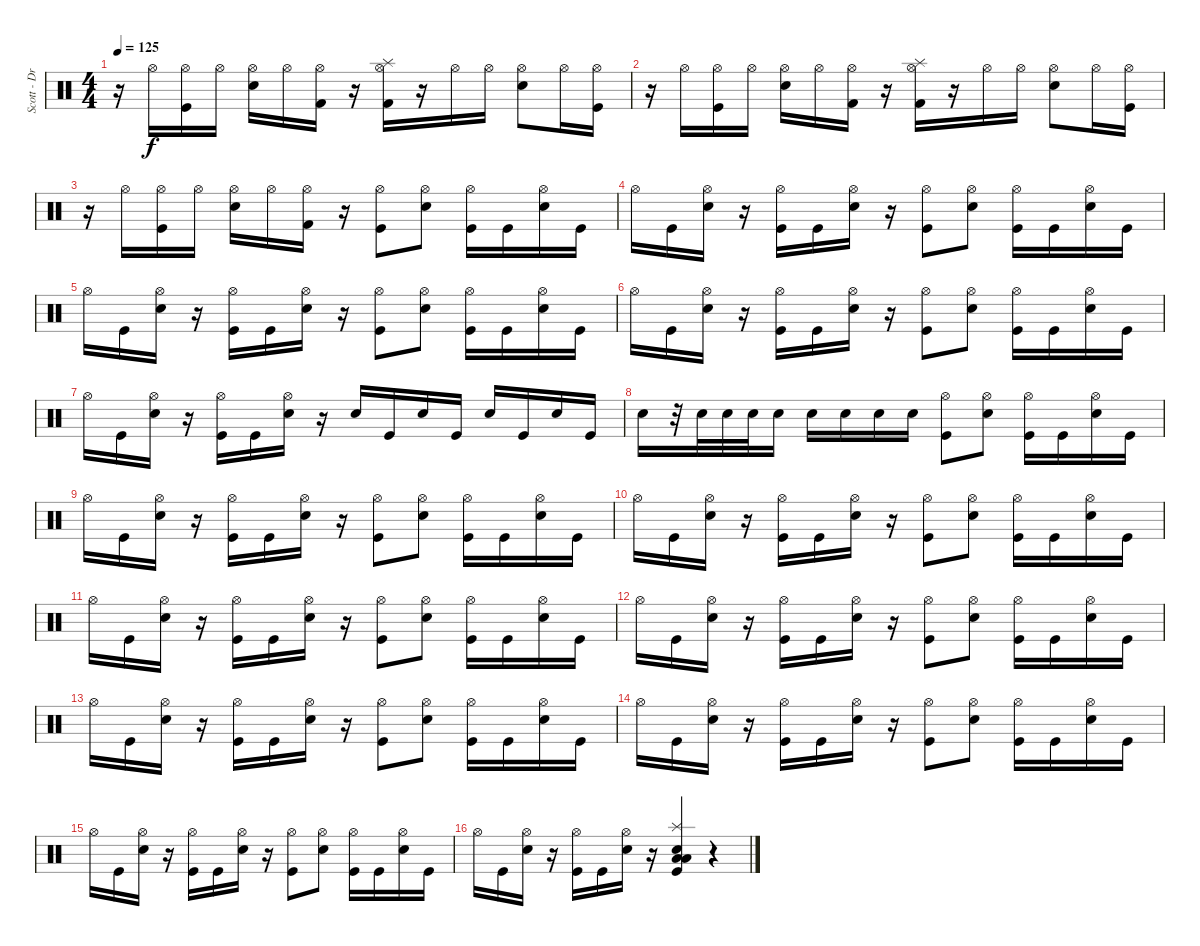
\track ("Scott - Drums" "Scott - Dr") {instrument percussion}
\staff {score}
\articulation defaults
\ts (4 4)
\tempo 125
\clef neutral
\ks c
r.16{dy f} "Hi-Hat (open)".16 ("Hi-Hat (open)" "Kick (hit)").16 "Hi-Hat (open)".16 ("Hi-Hat (open)" "Snare (hit) 2").16 "Hi-Hat (open)".16 ("Hi-Hat (open)" "Kick (hit) 2").16 r.16 ("Hi-Hat (open)" "Kick (hit) 2" "Splash (hit)").16 r.16 "Hi-Hat (open)".16 "Hi-Hat (open)".16 ("Hi-Hat (open)" "Snare (hit) 2").8 "Hi-Hat (open)".16 ("Hi-Hat (open)" "Kick (hit)").16 |
r.16 "Hi-Hat (open)".16 ("Hi-Hat (open)" "Kick (hit)").16 "Hi-Hat (open)".16 ("Hi-Hat (open)" "Snare (hit) 2").16 "Hi-Hat (open)".16 ("Hi-Hat (open)" "Kick (hit) 2").16 r.16 ("Hi-Hat (open)" "Kick (hit) 2" "Splash (hit)").16 r.16 "Hi-Hat (open)".16 "Hi-Hat (open)".16 ("Hi-Hat (open)" "Snare (hit) 2").8 "Hi-Hat (open)".16 ("Hi-Hat (open)" "Kick (hit)").16 |
r.16 "Hi-Hat (open)".16 ("Hi-Hat (open)" "Kick (hit)").16 "Hi-Hat (open)".16 ("Hi-Hat (open)" "Snare (hit) 2").16 "Hi-Hat (open)".16 ("Hi-Hat (open)" "Kick (hit) 2").16 r.16 ("Hi-Hat (open)" "Kick (hit)").8 ("Hi-Hat (open)" "Snare (hit) 2").8 ("Hi-Hat (open)" "Kick (hit)").16 "Kick (hit)".16 ("Hi-Hat (open)" "Snare (hit) 2").16 "Kick (hit)".16 |
"Hi-Hat (open)".16 "Kick (hit)".16 ("Hi-Hat (open)" "Snare (hit) 2").16 r.16 ("Hi-Hat (open)" "Kick (hit)").16 "Kick (hit)".16 ("Hi-Hat (open)" "Snare (hit) 2").16 r.16 ("Hi-Hat (open)" "Kick (hit)").8 ("Hi-Hat (open)" "Snare (hit) 2").8 ("Hi-Hat (open)" "Kick (hit)").16 "Kick (hit)".16 ("Hi-Hat (open)" "Snare (hit) 2").16 "Kick (hit)".16 |
"Hi-Hat (open)".16 "Kick (hit)".16 ("Hi-Hat (open)" "Snare (hit) 2").16 r.16 ("Hi-Hat (open)" "Kick (hit)").16 "Kick (hit)".16 ("Hi-Hat (open)" "Snare (hit) 2").16 r.16 ("Hi-Hat (open)" "Kick (hit)").8 ("Hi-Hat (open)" "Snare (hit) 2").8 ("Hi-Hat (open)" "Kick (hit)").16 "Kick (hit)".16 ("Hi-Hat (open)" "Snare (hit) 2").16 "Kick (hit)".16 |
"Hi-Hat (open)".16 "Kick (hit)".16 ("Hi-Hat (open)" "Snare (hit) 2").16 r.16 ("Hi-Hat (open)" "Kick (hit)").16 "Kick (hit)".16 ("Hi-Hat (open)" "Snare (hit) 2").16 r.16 ("Hi-Hat (open)" "Kick (hit)").8 ("Hi-Hat (open)" "Snare (hit) 2").8 ("Hi-Hat (open)" "Kick (hit)").16 "Kick (hit)".16 ("Hi-Hat (open)" "Snare (hit) 2").16 "Kick (hit)".16 |
"Hi-Hat (open)".16 "Kick (hit)".16 ("Hi-Hat (open)" "Snare (hit) 2").16 r.16 ("Hi-Hat (open)" "Kick (hit)").16 "Kick (hit)".16 ("Hi-Hat (open)" "Snare (hit) 2").16 r.16 "Snare (hit) 2".16 "Kick (hit)".16 "Snare (hit) 2".16 "Kick (hit)".16 "Snare (hit) 2".16 "Kick (hit)".16 "Snare (hit) 2".16 "Kick (hit)".16 |
"Snare (hit) 2".16 r.32 "Snare (hit) 2".32 "Snare (hit) 2".32 "Snare (hit) 2".32 "Snare (hit) 2".16 "Snare (hit) 2".16 "Snare (hit) 2".16 "Snare (hit) 2".16 "Snare (hit) 2".16 ("Hi-Hat (open)" "Kick (hit)").8 ("Hi-Hat (open)" "Snare (hit) 2").8 ("Hi-Hat (open)" "Kick (hit)").16 "Kick (hit)".16 ("Hi-Hat (open)" "Snare (hit) 2").16 "Kick (hit)".16 |
"Hi-Hat (open)".16 "Kick (hit)".16 ("Hi-Hat (open)" "Snare (hit) 2").16 r.16 ("Hi-Hat (open)" "Kick (hit)").16 "Kick (hit)".16 ("Hi-Hat (open)" "Snare (hit) 2").16 r.16 ("Hi-Hat (open)" "Kick (hit)").8 ("Hi-Hat (open)" "Snare (hit) 2").8 ("Hi-Hat (open)" "Kick (hit)").16 "Kick (hit)".16 ("Hi-Hat (open)" "Snare (hit) 2").16 "Kick (hit)".16 |
"Hi-Hat (open)".16 "Kick (hit)".16 ("Hi-Hat (open)" "Snare (hit) 2").16 r.16 ("Hi-Hat (open)" "Kick (hit)").16 "Kick (hit)".16 ("Hi-Hat (open)" "Snare (hit) 2").16 r.16 ("Hi-Hat (open)" "Kick (hit)").8 ("Hi-Hat (open)" "Snare (hit) 2").8 ("Hi-Hat (open)" "Kick (hit)").16 "Kick (hit)".16 ("Hi-Hat (open)" "Snare (hit) 2").16 "Kick (hit)".16 |
"Hi-Hat (open)".16 "Kick (hit)".16 ("Hi-Hat (open)" "Snare (hit) 2").16 r.16 ("Hi-Hat (open)" "Kick (hit)").16 "Kick (hit)".16 ("Hi-Hat (open)" "Snare (hit) 2").16 r.16 ("Hi-Hat (open)" "Kick (hit)").8 ("Hi-Hat (open)" "Snare (hit) 2").8 ("Hi-Hat (open)" "Kick (hit)").16 "Kick (hit)".16 ("Hi-Hat (open)" "Snare (hit) 2").16 "Kick (hit)".16 |
"Hi-Hat (open)".16 "Kick (hit)".16 ("Hi-Hat (open)" "Snare (hit) 2").16 r.16 ("Hi-Hat (open)" "Kick (hit)").16 "Kick (hit)".16 ("Hi-Hat (open)" "Snare (hit) 2").16 r.16 ("Hi-Hat (open)" "Kick (hit)").8 ("Hi-Hat (open)" "Snare (hit) 2").8 ("Hi-Hat (open)" "Kick (hit)").16 "Kick (hit)".16 ("Hi-Hat (open)" "Snare (hit) 2").16 "Kick (hit)".16 |
"Hi-Hat (open)".16 "Kick (hit)".16 ("Hi-Hat (open)" "Snare (hit) 2").16 r.16 ("Hi-Hat (open)" "Kick (hit)").16 "Kick (hit)".16 ("Hi-Hat (open)" "Snare (hit) 2").16 r.16 ("Hi-Hat (open)" "Kick (hit)").8 ("Hi-Hat (open)" "Snare (hit) 2").8 ("Hi-Hat (open)" "Kick (hit)").16 "Kick (hit)".16 ("Hi-Hat (open)" "Snare (hit) 2").16 "Kick (hit)".16 |
"Hi-Hat (open)".16 "Kick (hit)".16 ("Hi-Hat (open)" "Snare (hit) 2").16 r.16 ("Hi-Hat (open)" "Kick (hit)").16 "Kick (hit)".16 ("Hi-Hat (open)" "Snare (hit) 2").16 r.16 ("Hi-Hat (open)" "Kick (hit)").8 ("Hi-Hat (open)" "Snare (hit) 2").8 ("Hi-Hat (open)" "Kick (hit)").16 "Kick (hit)".16 ("Hi-Hat (open)" "Snare (hit) 2").16 "Kick (hit)".16 |
"Hi-Hat (open)".16 "Kick (hit)".16 ("Hi-Hat (open)" "Snare (hit) 2").16 r.16 ("Hi-Hat (open)" "Kick (hit)").16 "Kick (hit)".16 ("Hi-Hat (open)" "Snare (hit) 2").16 r.16 ("Hi-Hat (open)" "Kick (hit)").8 ("Hi-Hat (open)" "Snare (hit) 2").8 ("Hi-Hat (open)" "Kick (hit)").16 "Kick (hit)".16 ("Hi-Hat (open)" "Snare (hit) 2").16 "Kick (hit)".16 |
"Hi-Hat (open)".16 "Kick (hit)".16 ("Hi-Hat (open)" "Snare (hit) 2").16 r.16 ("Hi-Hat (open)" "Kick (hit)").16 "Kick (hit)".16 ("Hi-Hat (open)" "Snare (hit) 2").16 r.16 ("Low Tom (hit)" "Low Floor Tom (hit)" "Splash (hit)" "Kick (hit)" "Snare (hit) 2").4 r.4
